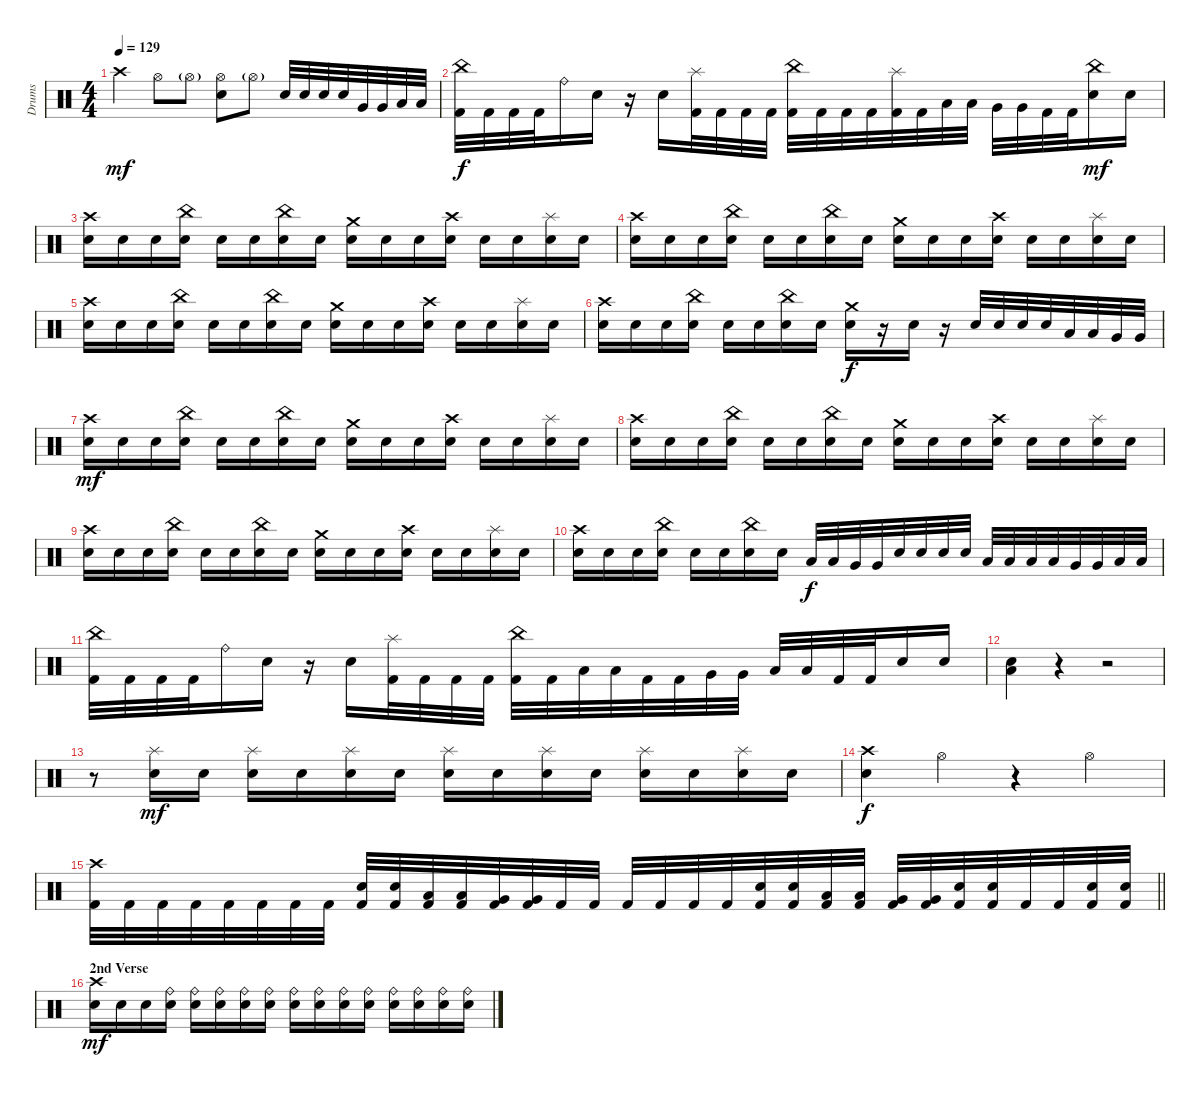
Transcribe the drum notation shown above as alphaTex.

\track ("Drums" "Drums") {instrument percussion}
\staff {score}
\articulation defaults
\ts (4 4)
\tempo 129
\clef neutral
\ks c "Crash high (hit)".4{dy mf} "Hi-Hat (open)".8 "Hi-Hat (open)"{g}.8
("Hi-Hat (open)" "Snare (hit) 2").8 "Hi-Hat (open)"{g}.8 "Snare (hit) 2".32 "Snare (hit) 2".32 "Snare (hit) 2".32 "Snare (hit) 2".32 "Very Low Tom (hit)".32 "Very Low Tom (hit)".32 "Low Floor Tom (hit)".32 "Low Floor Tom (hit)".32 |
("China (hit)" "Kick (hit) 2").32{dy f} "Kick (hit) 2".32 "Kick (hit) 2".32 "Kick (hit) 2".32 "Ride (bell)".16 "Snare (hit) 2".16 r.16 "Snare (hit) 2".16 ("Splash (hit)" "Kick (hit) 2").32 "Kick (hit) 2".32 "Kick (hit) 2".32 "Kick (hit) 2".32 ("China (hit)" "Kick (hit) 2").32 "Kick (hit) 2".32 "Kick (hit) 2".32 "Kick (hit) 2".32 ("Splash (hit)" "Kick (hit) 2").32 "Kick (hit) 2".32 "Low Tom (hit)".32 "Low Tom (hit)".32 "Very Low Tom (hit)".32 "Very Low Tom (hit)".32 "Kick (hit) 2".32 "Kick (hit) 2".32 ("China (hit)" "Snare (hit) 2").16{dy mf} "Snare (hit) 2".16 |
("Crash high (hit)" "Snare (hit) 2").16 "Snare (hit) 2".16 "Snare (hit) 2".16 ("China (hit)" "Snare (hit) 2").16 "Snare (hit) 2".16 "Snare (hit) 2".16 ("China (hit)" "Snare (hit) 2").16 "Snare (hit) 2".16 ("Crash medium (hit)" "Snare (hit) 2").16 "Snare (hit) 2".16 "Snare (hit) 2".16 ("Crash high (hit)" "Snare (hit) 2").16 "Snare (hit) 2".16 "Snare (hit) 2".16 ("Splash (hit)" "Snare (hit) 2").16 "Snare (hit) 2".16 |
("Crash high (hit)" "Snare (hit) 2").16 "Snare (hit) 2".16 "Snare (hit) 2".16 ("China (hit)" "Snare (hit) 2").16 "Snare (hit) 2".16 "Snare (hit) 2".16 ("China (hit)" "Snare (hit) 2").16 "Snare (hit) 2".16 ("Crash medium (hit)" "Snare (hit) 2").16 "Snare (hit) 2".16 "Snare (hit) 2".16 ("Crash high (hit)" "Snare (hit) 2").16 "Snare (hit) 2".16 "Snare (hit) 2".16 ("Splash (hit)" "Snare (hit) 2").16 "Snare (hit) 2".16 |
("Crash high (hit)" "Snare (hit) 2").16 "Snare (hit) 2".16 "Snare (hit) 2".16 ("China (hit)" "Snare (hit) 2").16 "Snare (hit) 2".16 "Snare (hit) 2".16 ("China (hit)" "Snare (hit) 2").16 "Snare (hit) 2".16 ("Crash medium (hit)" "Snare (hit) 2").16 "Snare (hit) 2".16 "Snare (hit) 2".16 ("Crash high (hit)" "Snare (hit) 2").16 "Snare (hit) 2".16 "Snare (hit) 2".16 ("Splash (hit)" "Snare (hit) 2").16 "Snare (hit) 2".16 |
("Crash high (hit)" "Snare (hit) 2").16 "Snare (hit) 2".16 "Snare (hit) 2".16 ("China (hit)" "Snare (hit) 2").16 "Snare (hit) 2".16 "Snare (hit) 2".16 ("China (hit)" "Snare (hit) 2").16 "Snare (hit) 2".16 ("Crash medium (hit)" "Snare (hit) 2").16{dy f} r.16 "Snare (hit) 2".16 r.16 "Snare (hit) 2".32 "Snare (hit) 2".32 "Snare (hit) 2".32 "Snare (hit) 2".32 "Low Tom (hit)".32 "Low Tom (hit)".32 "Very Low Tom (hit)".32 "Very Low Tom (hit)".32 |
("Crash high (hit)" "Snare (hit) 2").16{dy mf} "Snare (hit) 2".16 "Snare (hit) 2".16 ("China (hit)" "Snare (hit) 2").16 "Snare (hit) 2".16 "Snare (hit) 2".16 ("China (hit)" "Snare (hit) 2").16 "Snare (hit) 2".16 ("Crash medium (hit)" "Snare (hit) 2").16 "Snare (hit) 2".16 "Snare (hit) 2".16 ("Crash high (hit)" "Snare (hit) 2").16 "Snare (hit) 2".16 "Snare (hit) 2".16 ("Splash (hit)" "Snare (hit) 2").16 "Snare (hit) 2".16 |
("Crash high (hit)" "Snare (hit) 2").16 "Snare (hit) 2".16 "Snare (hit) 2".16 ("China (hit)" "Snare (hit) 2").16 "Snare (hit) 2".16 "Snare (hit) 2".16 ("China (hit)" "Snare (hit) 2").16 "Snare (hit) 2".16 ("Crash medium (hit)" "Snare (hit) 2").16 "Snare (hit) 2".16 "Snare (hit) 2".16 ("Crash high (hit)" "Snare (hit) 2").16 "Snare (hit) 2".16 "Snare (hit) 2".16 ("Splash (hit)" "Snare (hit) 2").16 "Snare (hit) 2".16 |
("Crash high (hit)" "Snare (hit) 2").16 "Snare (hit) 2".16 "Snare (hit) 2".16 ("China (hit)" "Snare (hit) 2").16 "Snare (hit) 2".16 "Snare (hit) 2".16 ("China (hit)" "Snare (hit) 2").16 "Snare (hit) 2".16 ("Crash medium (hit)" "Snare (hit) 2").16 "Snare (hit) 2".16 "Snare (hit) 2".16 ("Crash high (hit)" "Snare (hit) 2").16 "Snare (hit) 2".16 "Snare (hit) 2".16 ("Splash (hit)" "Snare (hit) 2").16 "Snare (hit) 2".16 |
("Crash high (hit)" "Snare (hit) 2").16 "Snare (hit) 2".16 "Snare (hit) 2".16 ("China (hit)" "Snare (hit) 2").16 "Snare (hit) 2".16 "Snare (hit) 2".16 ("China (hit)" "Snare (hit) 2").16 "Snare (hit) 2".16 "Low Tom (hit)".32{dy f} "Low Tom (hit)".32 "Very Low Tom (hit)".32 "Very Low Tom (hit)".32 "Snare (hit) 2".32 "Snare (hit) 2".32 "Snare (hit) 2".32 "Snare (hit) 2".32 "Low Tom (hit)".32 "Low Tom (hit)".32 "Low Tom (hit)".32 "Low Tom (hit)".32 "Very Low Tom (hit)".32 "Very Low Tom (hit)".32 "Low Floor Tom (hit)".32 "Low Floor Tom (hit)".32 |
("China (hit)" "Kick (hit) 2").32 "Kick (hit) 2".32 "Kick (hit) 2".32 "Kick (hit) 2".32 "Ride (bell)".16 "Snare (hit) 2".16 r.16 "Snare (hit) 2".16 ("Splash (hit)" "Kick (hit) 2").32 "Kick (hit) 2".32 "Kick (hit) 2".32 "Kick (hit) 2".32 ("China (hit)" "Kick (hit) 2").32 "Kick (hit) 2".32 "Low Tom (hit)".32 "Low Tom (hit)".32 "Kick (hit) 2".32 "Kick (hit) 2".32 "Very Low Tom (hit)".32 "Very Low Tom (hit)".32 "Low Floor Tom (hit)".32 "Low Floor Tom (hit)".32 "Kick (hit) 2".32 "Kick (hit) 2".32 "Snare (hit) 2".16 "Snare (hit) 2".16 |
("Low Floor Tom (hit)" "Snare (hit) 2").4 r.4 r.2 |
r.8 ("Splash (hit)" "Snare (hit) 2").16{dy mf} "Snare (hit) 2".16 ("Splash (hit)" "Snare (hit) 2").16 "Snare (hit) 2".16 ("Splash (hit)" "Snare (hit) 2").16 "Snare (hit) 2".16 ("Splash (hit)" "Snare (hit) 2").16 "Snare (hit) 2".16 ("Splash (hit)" "Snare (hit) 2").16 "Snare (hit) 2".16 ("Splash (hit)" "Snare (hit) 2").16 "Snare (hit) 2".16 ("Splash (hit)" "Snare (hit) 2").16 "Snare (hit) 2".16 |
("Crash high (hit)" "Snare (hit) 2").4{dy f} "Hi-Hat (open)".4 r.4 "Hi-Hat (open)".4 |
\barLineRight lightlight
("Crash high (hit)" "Kick (hit) 2").32 "Kick (hit) 2".32 "Kick (hit) 2".32 "Kick (hit) 2".32 "Kick (hit) 2".32 "Kick (hit) 2".32 "Kick (hit) 2".32 "Kick (hit) 2".32 ("Snare (hit) 2" "Kick (hit) 2").32 ("Snare (hit) 2" "Kick (hit) 2").32 ("Low Tom (hit)" "Kick (hit) 2").32 ("Low Tom (hit)" "Kick (hit) 2").32 ("Very Low Tom (hit)" "Kick (hit) 2").32 ("Very Low Tom (hit)" "Kick (hit) 2").32 "Kick (hit) 2".32 "Kick (hit) 2".32 "Kick (hit) 2".32 "Kick (hit) 2".32 "Kick (hit) 2".32 "Kick (hit) 2".32 ("Snare (hit) 2" "Kick (hit) 2").32 ("Snare (hit) 2" "Kick (hit) 2").32 ("Low Tom (hit)" "Kick (hit) 2").32 ("Low Tom (hit)" "Kick (hit) 2").32 ("Very Low Tom (hit)" "Kick (hit) 2").32 ("Very Low Tom (hit)" "Kick (hit) 2").32 ("Snare (hit) 2" "Kick (hit) 2").32 ("Snare (hit) 2" "Kick (hit) 2").32 "Kick (hit) 2".32 "Kick (hit) 2".32 ("Snare (hit) 2" "Kick (hit) 2").32 ("Snare (hit) 2" "Kick (hit) 2").32 |
\section ("" "2nd Verse")
("Crash high (hit)" "Snare (hit) 2").16{dy mf} "Snare (hit) 2".16 "Snare (hit) 2".16 ("Ride (bell)" "Snare (hit) 2").16 ("Ride (bell)" "Snare (hit) 2").16 ("Ride (bell)" "Snare (hit) 2").16 ("Ride (bell)" "Snare (hit) 2").16 ("Ride (bell)" "Snare (hit) 2").16 ("Ride (bell)" "Snare (hit) 2").16 ("Ride (bell)" "Snare (hit) 2").16 ("Ride (bell)" "Snare (hit) 2").16 ("Ride (bell)" "Snare (hit) 2").16 ("Ride (bell)" "Snare (hit) 2").16 ("Ride (bell)" "Snare (hit) 2").16 ("Ride (bell)" "Snare (hit) 2").16 ("Ride (bell)" "Snare (hit) 2").16
